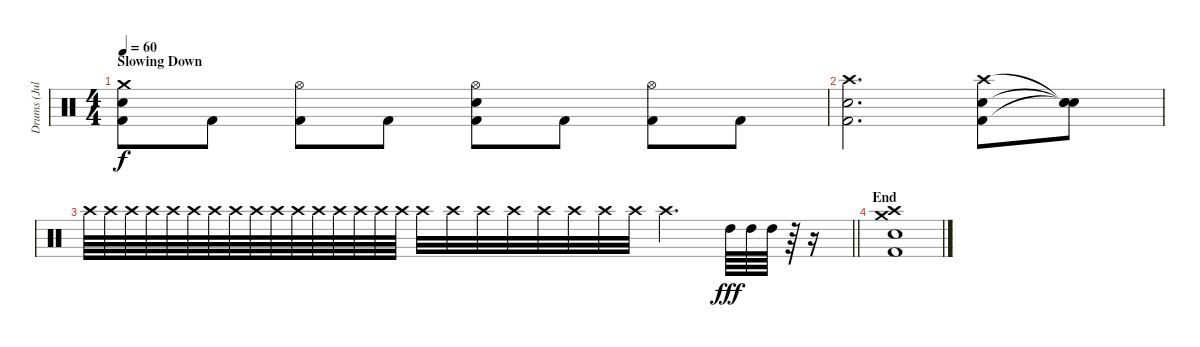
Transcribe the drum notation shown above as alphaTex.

\track ("Drums (Julian)" "Drums (Jul") {instrument percussion}
\staff {score}
\articulation defaults
\ts (4 4)
\section ("" "Slowing Down")
\tempo 60
\clef neutral
\ks c
("Crash medium (hit)" "Snare (hit) 2" "Kick (hit) 2").8{dy f} "Kick (hit) 2".8 ("Hi-Hat (open)" "Kick (hit) 2").8 "Kick (hit) 2".8 ("Hi-Hat (open)" "Snare (hit) 2" "Kick (hit) 2").8 "Kick (hit) 2".8 ("Hi-Hat (open)" "Kick (hit) 2").8 "Kick (hit) 2".8 |
("Crash high (hit)" "Snare (hit) 2" "Kick (hit) 2").2{d} ("Crash high (hit)" "Snare (hit) 2" "Kick (hit) 2").8 ("Snare (hit)"{t} "Snare (hit)"{t} "Snare (hit)"{t}).8{volume 0} |
\barLineRight lightlight "Crash high (hit)".64{volume 5} "Crash high (hit)".64 "Crash high (hit)".64 "Crash high (hit)".64 "Crash high (hit)".64 "Crash high (hit)".64 "Crash high (hit)".64 "Crash high (hit)".64 "Crash high (hit)".64 "Crash high (hit)".64 "Crash high (hit)".64 "Crash high (hit)".64 "Crash high (hit)".64 "Crash high (hit)".64 "Crash high (hit)".64 "Crash high (hit)".64 "Crash high (hit)".32 "Crash high (hit)".32 "Crash high (hit)".32 "Crash high (hit)".32 "Crash high (hit)".32 "Crash high (hit)".32 "Crash high (hit)".32 "Crash high (hit)".32 "Crash high (hit)".4{d} "High Tom (hit)".64{dy fff} "High Tom (hit)".64 "High Tom (hit)".64
r.64 r.16 |
\section ("" "End")
("Crash high (hit)" "Crash medium (hit)" "Snare (hit) 2" "Kick (hit) 2").1
